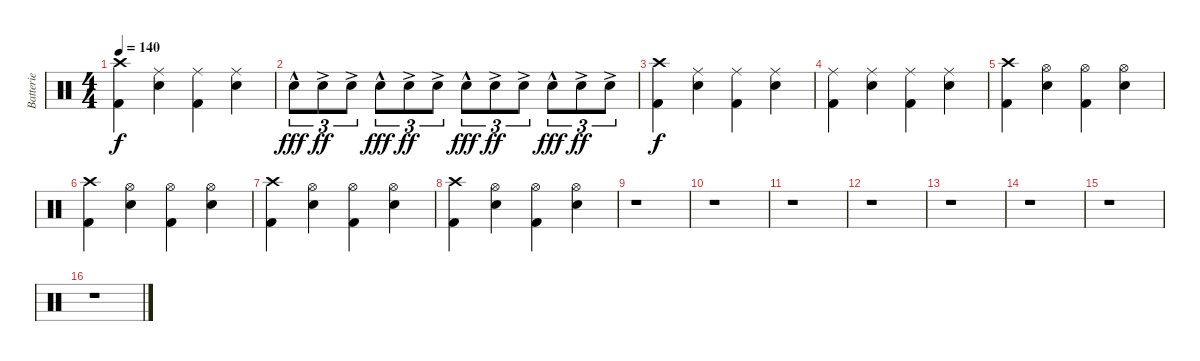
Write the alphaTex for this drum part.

\track ("Batterie" "Batterie") {instrument percussion}
\staff {score}
\articulation defaults
\ts (4 4)
\tempo 140
\clef neutral
\ks c
("Crash high (hit)" "Kick (hit) 2").4{dy f} ("Ride (middle)" "Electric Snare (hit)").4 ("Ride (middle)" "Kick (hit) 2").4 ("Ride (middle)" "Electric Snare (hit)").4 |
"Electric Snare (hit)"{hac}.8{tu (3 2) dy fff} "Electric Snare (hit)"{ac}.8{tu (3 2) dy ff} "Electric Snare (hit)"{ac}.8{tu (3 2)} "Electric Snare (hit)"{hac}.8{tu (3 2) dy fff} "Electric Snare (hit)"{ac}.8{tu (3 2) dy ff} "Electric Snare (hit)"{ac}.8{tu (3 2)} "Electric Snare (hit)"{hac}.8{tu (3 2) dy fff} "Electric Snare (hit)"{ac}.8{tu (3 2) dy ff} "Electric Snare (hit)"{ac}.8{tu (3 2)} "Electric Snare (hit)"{hac}.8{tu (3 2) dy fff} "Electric Snare (hit)"{ac}.8{tu (3 2) dy ff} "Electric Snare (hit)"{ac}.8{tu (3 2)} |
("Crash high (hit)" "Kick (hit) 2").4{dy f} ("Ride (middle)" "Electric Snare (hit)").4 ("Ride (middle)" "Kick (hit) 2").4 ("Ride (middle)" "Electric Snare (hit)").4 |
("Ride (middle)" "Kick (hit) 2").4 ("Ride (middle)" "Electric Snare (hit)").4 ("Ride (middle)" "Kick (hit) 2").4 ("Ride (middle)" "Electric Snare (hit)").4 |
("Crash high (hit)" "Kick (hit) 2").4 ("Hi-Hat (open)" "Electric Snare (hit)").4 ("Hi-Hat (open)" "Kick (hit) 2").4 ("Hi-Hat (open)" "Electric Snare (hit)").4 |
("Crash high (hit)" "Kick (hit) 2").4 ("Hi-Hat (open)" "Electric Snare (hit)").4 ("Hi-Hat (open)" "Kick (hit) 2").4 ("Hi-Hat (open)" "Electric Snare (hit)").4 |
("Crash high (hit)" "Kick (hit) 2").4 ("Hi-Hat (open)" "Electric Snare (hit)").4 ("Hi-Hat (open)" "Kick (hit) 2").4 ("Hi-Hat (open)" "Electric Snare (hit)").4 |
("Crash high (hit)" "Kick (hit) 2").4 ("Hi-Hat (open)" "Electric Snare (hit)").4 ("Hi-Hat (open)" "Kick (hit) 2").4 ("Hi-Hat (open)" "Electric Snare (hit)").4 |
r.1 |
r.1 |
r.1 |
r.1 |
r.1 |
r.1 |
r.1 |
r.1
